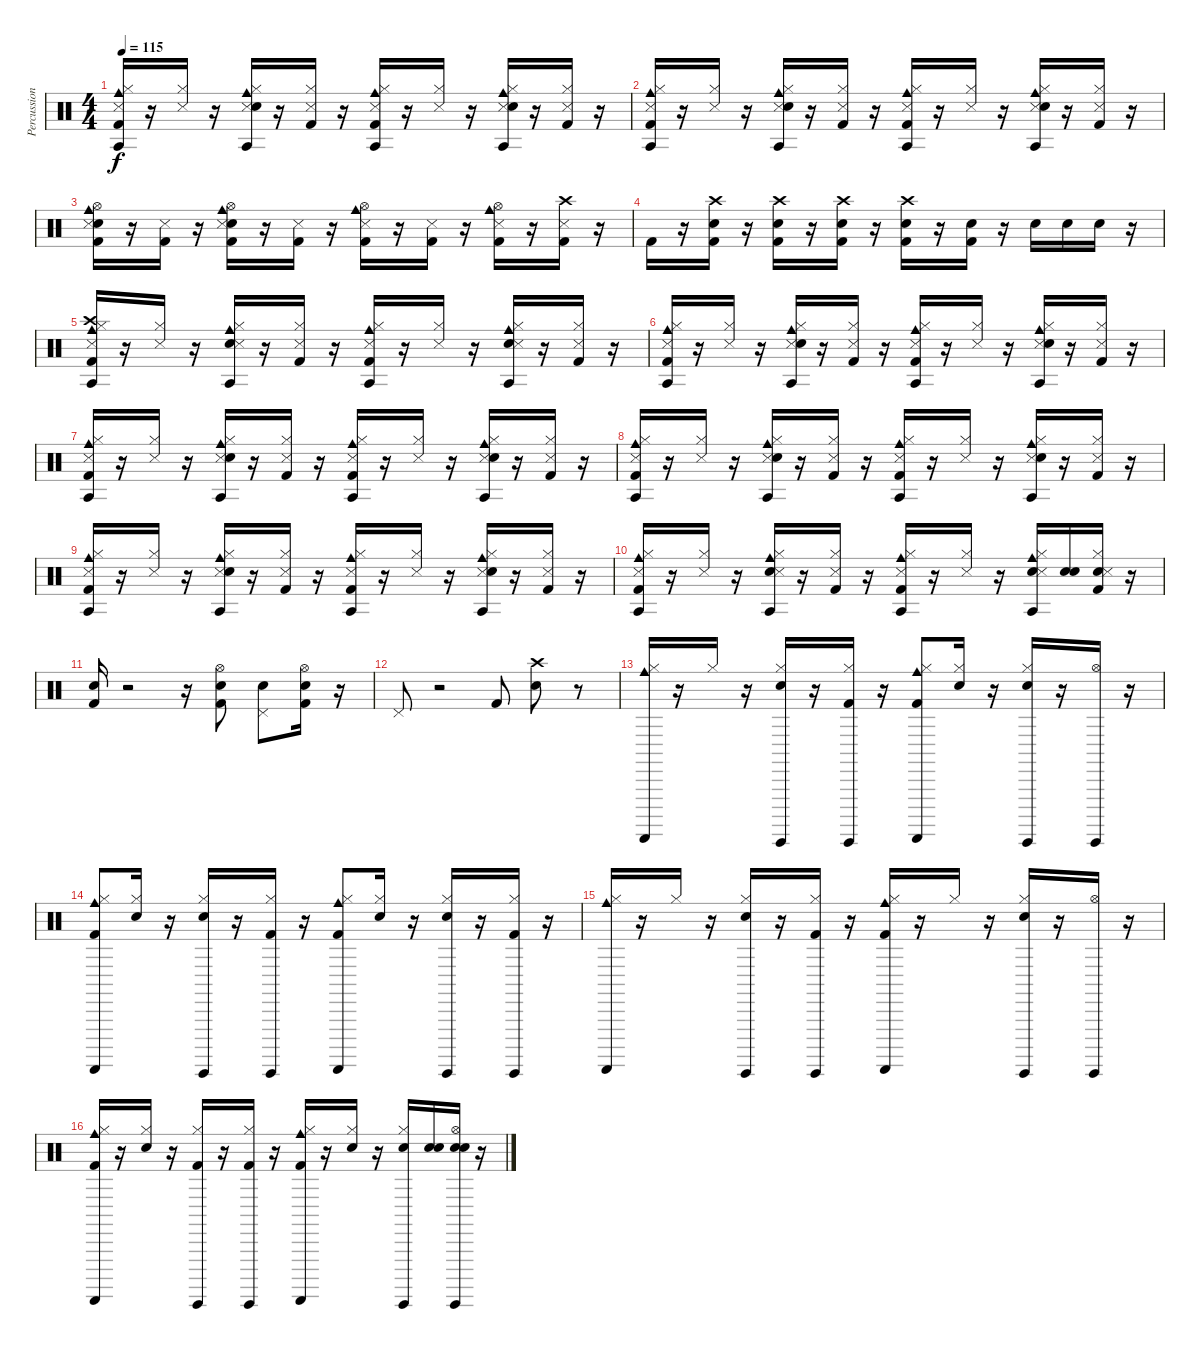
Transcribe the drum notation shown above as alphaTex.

\track ("Percussion" "Percussion") {instrument percussion}
\staff {score}
\articulation defaults
\ts (4 4)
\tempo 115
\clef neutral
\ks c
("Agogo tow (hit)" "Snare (side stick) 3" "Cowbell medium (hit)" "Hi-Hat (closed)" "Kick (hit) 2").16{dy f} r.16 ("Snare (side stick) 3" "Hi-Hat (closed)").16 r.16 ("Agogo tow (hit)" "Snare (side stick) 3" "Cowbell medium (hit)" "Hi-Hat (closed)" "Snare (hit) 2").16 r.16 ("Snare (side stick) 3" "Hi-Hat (closed)" "Kick (hit) 2").16 r.16 ("Agogo tow (hit)" "Snare (side stick) 3" "Cowbell medium (hit)" "Hi-Hat (closed)" "Kick (hit) 2").16 r.16 ("Snare (side stick) 3" "Hi-Hat (closed)").16 r.16 ("Agogo tow (hit)" "Snare (side stick) 3" "Cowbell medium (hit)" "Hi-Hat (closed)" "Snare (hit) 2").16 r.16 ("Snare (side stick) 3" "Hi-Hat (closed)" "Kick (hit) 2").16 r.16 |
("Cowbell medium (hit)" "Snare (side stick) 3" "Agogo tow (hit)" "Kick (hit) 2" "Hi-Hat (closed)").16 r.16 ("Snare (side stick) 3" "Hi-Hat (closed)").16 r.16 ("Cowbell medium (hit)" "Snare (side stick) 3" "Agogo tow (hit)" "Snare (hit) 2" "Hi-Hat (closed)").16 r.16 ("Snare (side stick) 3" "Kick (hit) 2" "Hi-Hat (closed)").16 r.16 ("Cowbell medium (hit)" "Snare (side stick) 3" "Agogo tow (hit)" "Kick (hit) 2" "Hi-Hat (closed)").16 r.16 ("Snare (side stick) 3" "Hi-Hat (closed)").16 r.16 ("Cowbell medium (hit)" "Snare (side stick) 3" "Agogo tow (hit)" "Snare (hit) 2" "Hi-Hat (closed)").16 r.16 ("Snare (side stick) 3" "Kick (hit) 2" "Hi-Hat (closed)").16 r.16 |
("Electric Snare (hit)" "Snare (side stick) 3" "Cowbell medium (hit)" "Hi-Hat (open)" "Kick (hit) 2").16 r.16 ("Snare (side stick) 3" "Kick (hit) 2").16 r.16 ("Electric Snare (hit)" "Snare (side stick) 3" "Cowbell medium (hit)" "Hi-Hat (open)" "Kick (hit) 2").16 r.16 ("Snare (side stick) 3" "Kick (hit) 2").16 r.16 ("Snare (side stick) 3" "Cowbell medium (hit)" "Hi-Hat (open)" "Kick (hit) 2").16 r.16 ("Snare (side stick) 3" "Kick (hit) 2").16 r.16 ("Snare (side stick) 3" "Cowbell medium (hit)" "Hi-Hat (open)" "Kick (hit) 2").16 r.16 ("Crash high (hit)" "Snare (side stick) 3" "Kick (hit) 2").16 r.16 |
"Kick (hit) 2".16 r.16 ("Crash high (hit)" "Snare (hit) 2" "Kick (hit) 2").16 r.16 ("Snare (hit) 2" "Crash high (hit)" "Kick (hit) 2").16 r.16 ("Snare (hit) 2" "Kick (hit) 2" "Crash high (hit)").16 r.16 ("Snare (hit) 2" "Crash high (hit)" "Kick (hit) 2").16 r.16 ("Snare (hit) 2" "Kick (hit) 2").16 r.16 "Snare (hit) 2".16 "Snare (hit) 2".16 "Snare (hit) 2".16 r.16 |
("Kick (hit) 2" "Hi-Hat (closed)" "Agogo tow (hit)" "Crash high (hit)" "Cowbell medium (hit)" "Snare (side stick) 3").16 r.16 ("Hi-Hat (closed)" "Snare (side stick) 3").16 r.16 ("Snare (hit) 2" "Hi-Hat (closed)" "Agogo tow (hit)" "Cowbell medium (hit)" "Snare (side stick) 3").16 r.16 ("Kick (hit) 2" "Hi-Hat (closed)" "Snare (side stick) 3").16 r.16 ("Kick (hit) 2" "Hi-Hat (closed)" "Agogo tow (hit)" "Cowbell medium (hit)" "Snare (side stick) 3").16 r.16 ("Hi-Hat (closed)" "Snare (side stick) 3").16 r.16 ("Snare (hit) 2" "Hi-Hat (closed)" "Agogo tow (hit)" "Cowbell medium (hit)" "Snare (side stick) 3").16 r.16 ("Kick (hit) 2" "Hi-Hat (closed)" "Snare (side stick) 3").16 r.16 |
("Cowbell medium (hit)" "Snare (side stick) 3" "Hi-Hat (closed)" "Agogo tow (hit)" "Kick (hit) 2").16 r.16 ("Snare (side stick) 3" "Hi-Hat (closed)").16 r.16 ("Cowbell medium (hit)" "Snare (side stick) 3" "Hi-Hat (closed)" "Agogo tow (hit)" "Snare (hit) 2").16 r.16 ("Snare (side stick) 3" "Hi-Hat (closed)" "Kick (hit) 2").16 r.16 ("Cowbell medium (hit)" "Snare (side stick) 3" "Hi-Hat (closed)" "Agogo tow (hit)" "Kick (hit) 2").16 r.16 ("Snare (side stick) 3" "Hi-Hat (closed)").16 r.16 ("Cowbell medium (hit)" "Snare (side stick) 3" "Hi-Hat (closed)" "Agogo tow (hit)" "Snare (hit) 2").16 r.16 ("Snare (side stick) 3" "Hi-Hat (closed)" "Kick (hit) 2").16 r.16 |
("Snare (side stick) 3" "Agogo tow (hit)" "Kick (hit) 2" "Cowbell medium (hit)" "Hi-Hat (closed)").16 r.16 ("Snare (side stick) 3" "Hi-Hat (closed)").16 r.16 ("Snare (side stick) 3" "Agogo tow (hit)" "Snare (hit) 2" "Cowbell medium (hit)" "Hi-Hat (closed)").16 r.16 ("Snare (side stick) 3" "Kick (hit) 2" "Hi-Hat (closed)").16 r.16 ("Snare (side stick) 3" "Agogo tow (hit)" "Kick (hit) 2" "Cowbell medium (hit)" "Hi-Hat (closed)").16 r.16 ("Snare (side stick) 3" "Hi-Hat (closed)").16 r.16 ("Snare (side stick) 3" "Agogo tow (hit)" "Snare (hit) 2" "Cowbell medium (hit)" "Hi-Hat (closed)").16 r.16 ("Snare (side stick) 3" "Kick (hit) 2" "Hi-Hat (closed)").16 r.16 |
("Cowbell medium (hit)" "Agogo tow (hit)" "Snare (side stick) 3" "Kick (hit) 2" "Hi-Hat (closed)").16 r.16 ("Snare (side stick) 3" "Hi-Hat (closed)").16 r.16 ("Cowbell medium (hit)" "Agogo tow (hit)" "Snare (side stick) 3" "Snare (hit) 2" "Hi-Hat (closed)").16 r.16 ("Snare (side stick) 3" "Kick (hit) 2" "Hi-Hat (closed)").16 r.16 ("Cowbell medium (hit)" "Agogo tow (hit)" "Snare (side stick) 3" "Kick (hit) 2" "Hi-Hat (closed)").16 r.16 ("Snare (side stick) 3" "Hi-Hat (closed)").16 r.16 ("Cowbell medium (hit)" "Agogo tow (hit)" "Snare (side stick) 3" "Snare (hit) 2" "Hi-Hat (closed)").16 r.16 ("Snare (side stick) 3" "Kick (hit) 2" "Hi-Hat (closed)").16 r.16 |
("Hi-Hat (closed)" "Cowbell medium (hit)" "Snare (side stick) 3" "Agogo tow (hit)" "Kick (hit) 2").16 r.16 ("Hi-Hat (closed)" "Snare (side stick) 3").16 r.16 ("Hi-Hat (closed)" "Cowbell medium (hit)" "Snare (side stick) 3" "Agogo tow (hit)" "Snare (hit) 2").16 r.16 ("Hi-Hat (closed)" "Snare (side stick) 3" "Kick (hit) 2").16 r.16 ("Hi-Hat (closed)" "Cowbell medium (hit)" "Snare (side stick) 3" "Agogo tow (hit)" "Kick (hit) 2").16 r.16 ("Hi-Hat (closed)" "Snare (side stick) 3").16 r.16 ("Hi-Hat (closed)" "Cowbell medium (hit)" "Snare (side stick) 3" "Agogo tow (hit)" "Snare (hit) 2").16 r.16 ("Hi-Hat (closed)" "Snare (side stick) 3" "Kick (hit) 2").16 r.16 |
("Kick (hit) 2" "Agogo tow (hit)" "Cowbell medium (hit)" "Snare (side stick) 3" "Hi-Hat (closed)").16 r.16 ("Snare (side stick) 3" "Hi-Hat (closed)").16 r.16 ("Snare (hit) 2" "Agogo tow (hit)" "Cowbell medium (hit)" "Snare (side stick) 3" "Hi-Hat (closed)").16 r.16 ("Kick (hit) 2" "Snare (side stick) 3" "Hi-Hat (closed)").16 r.16 ("Kick (hit) 2" "Agogo tow (hit)" "Cowbell medium (hit)" "Snare (side stick) 3" "Hi-Hat (closed)").16 r.16 ("Snare (side stick) 3" "Hi-Hat (closed)").16 r.16 ("Snare (hit) 2" "Agogo tow (hit)" "Cowbell medium (hit)" "Snare (side stick) 3" "Hi-Hat (closed)").16 ("Snare (hit)" "Snare (hit) 2").16 ("Snare (hit) 2" "Kick (hit) 2" "Snare (side stick) 3" "Hi-Hat (closed)").16 r.16 |
("Kick (hit) 2" "Snare (hit) 2").16 r.2 r.16 ("Snare (hit) 2" "Kick (hit) 2" "Hi-Hat (open)").8 ("Snare (hit)" "Pedal Hi-Hat (hit)").8 ("Kick (hit) 2" "Snare (hit) 2" "Hi-Hat (open)").16 r.16 |
"Pedal Hi-Hat (hit)".8 r.2 "Kick (hit) 2".8 ("Snare (hit)" "Crash high (hit)").8 r.8 |
("Cowbell medium (hit)" "Guiro (scrap-return)" "Hi-Hat (closed)").16 r.16 "Hi-Hat (closed)".16 r.16 ("Guiro (hit)" "Snare (hit) 2" "Hi-Hat (closed)").16 r.16 ("Hi-Hat (closed)" "Kick (hit) 2" "Guiro (hit)").16 r.16 ("Guiro (scrap-return)" "Kick (hit) 2" "Hi-Hat (closed)" "Cowbell medium (hit)").8 ("Snare (hit)" "Hi-Hat (closed)").16 r.16 ("Guiro (hit)" "Snare (hit) 2" "Hi-Hat (closed)").16 r.16 ("Hi-Hat (open)" "Guiro (hit)").16 r.16 |
("Guiro (scrap-return)" "Kick (hit) 2" "Hi-Hat (closed)" "Cowbell medium (hit)").8 ("Snare (hit)" "Hi-Hat (closed)").16 r.16 ("Guiro (hit)" "Snare (hit) 2" "Hi-Hat (closed)").16 r.16 ("Hi-Hat (closed)" "Kick (hit) 2" "Guiro (hit)").16 r.16 ("Guiro (scrap-return)" "Kick (hit) 2" "Hi-Hat (closed)" "Cowbell medium (hit)").8 ("Snare (hit)" "Hi-Hat (closed)").16 r.16 ("Guiro (hit)" "Snare (hit) 2" "Hi-Hat (closed)").16 r.16 ("Guiro (hit)" "Hi-Hat (closed)" "Kick (hit) 2").16 r.16 |
("Guiro (scrap-return)" "Hi-Hat (closed)" "Cowbell medium (hit)").16 r.16 "Hi-Hat (closed)".16 r.16 ("Guiro (hit)" "Snare (hit) 2" "Hi-Hat (closed)").16 r.16 ("Hi-Hat (closed)" "Kick (hit) 2" "Guiro (hit)").16 r.16 ("Cowbell medium (hit)" "Guiro (scrap-return)" "Kick (hit) 2" "Hi-Hat (closed)").16 r.16 "Hi-Hat (closed)".16 r.16 ("Guiro (hit)" "Snare (hit) 2" "Hi-Hat (closed)").16 r.16 ("Hi-Hat (open)" "Guiro (hit)").16 r.16 |
("Kick (hit) 2" "Guiro (scrap-return)" "Hi-Hat (closed)" "Cowbell medium (hit)").16 r.16 ("Snare (hit) 2" "Hi-Hat (closed)").16 r.16 ("Kick (hit) 2" "Guiro (hit)" "Hi-Hat (closed)").16 r.16 ("Hi-Hat (closed)" "Kick (hit) 2" "Guiro (hit)").16 r.16 ("Cowbell medium (hit)" "Guiro (scrap-return)" "Kick (hit) 2" "Hi-Hat (closed)").16 r.16 ("Snare (hit) 2" "Hi-Hat (closed)").16 r.16 ("Electric Snare (hit)" "Guiro (hit)" "Hi-Hat (closed)").16 ("Snare (hit)" "Electric Snare (hit)").16 ("Snare (hit)" "Electric Snare (hit)" "Hi-Hat (open)" "Guiro (hit)").16 r.16
